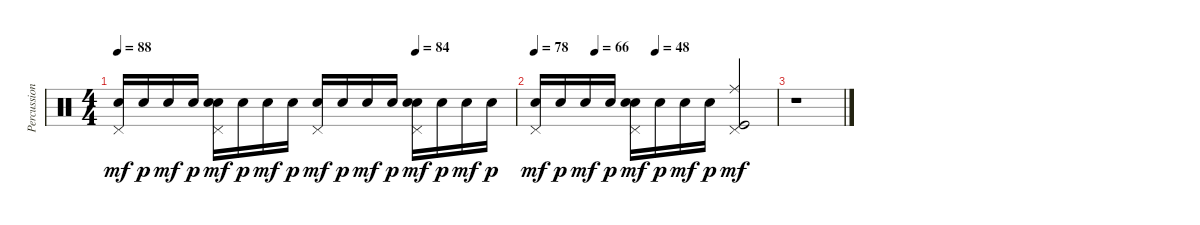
\track ("Percussion" "Percussion") {instrument percussion}
\staff {score}
\articulation defaults
\ts (4 4)
\tempo 88
\tempo (84 0.75)
\clef neutral
\ks c
("Snare (hit) 2" "Pedal Hi-Hat (hit)").16{dy mf} "Snare (hit) 2".16{dy p} "Snare (hit) 2".16{dy mf} "Snare (hit) 2".16{dy p} ("Hand Clap (hit)" "Snare (hit) 2" "Pedal Hi-Hat (hit)").16{dy mf} "Snare (hit) 2".16{dy p} "Snare (hit) 2".16{dy mf} "Snare (hit) 2".16{dy p} ("Snare (hit) 2" "Pedal Hi-Hat (hit)").16{dy mf} "Snare (hit) 2".16{dy p} "Snare (hit) 2".16{dy mf} "Snare (hit) 2".16{dy p} ("Snare (hit) 2" "Hand Clap (hit)" "Pedal Hi-Hat (hit)").16{dy mf} "Snare (hit) 2".16{dy p} "Snare (hit) 2".16{dy mf} "Snare (hit) 2".16{dy p} |
\tempo 78
\tempo (66 0.25)
\tempo (48 0.5)
("Snare (hit) 2" "Pedal Hi-Hat (hit)").16{dy mf} "Snare (hit) 2".16{dy p} "Snare (hit) 2".16{dy mf} "Snare (hit) 2".16{dy p} ("Hand Clap (hit)" "Snare (hit) 2" "Pedal Hi-Hat (hit)").16{dy mf} "Snare (hit) 2".16{dy p} "Snare (hit) 2".16{dy mf} "Snare (hit) 2".16{dy p} ("Ride (middle)" "Pedal Hi-Hat (hit)" "Kick (hit)").2{dy mf} |
r.1
